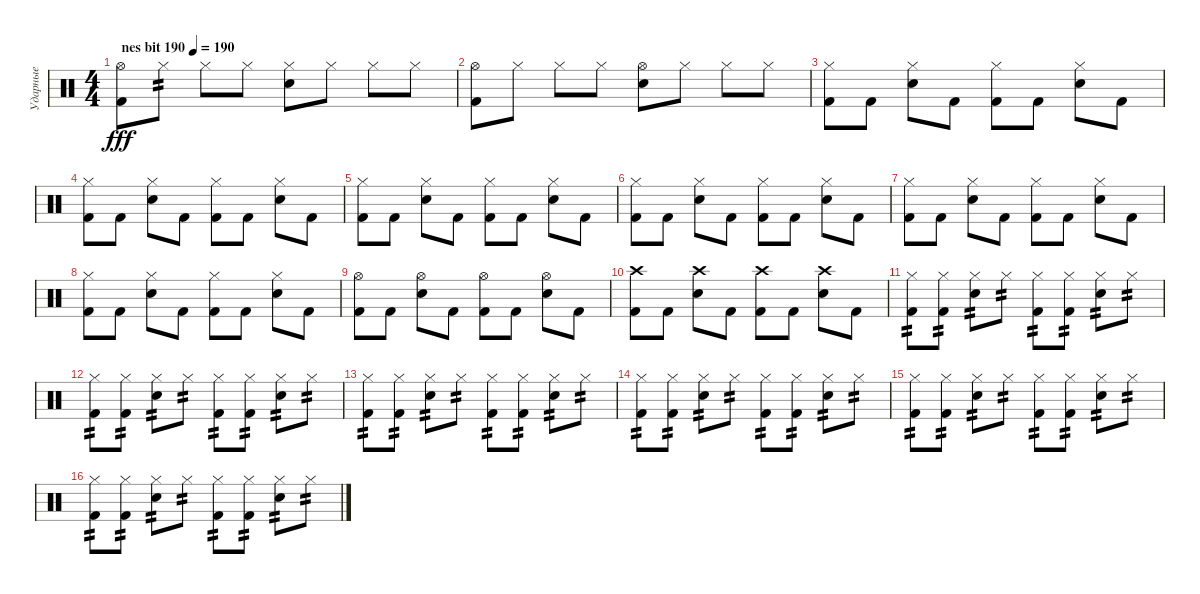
\track ("Ударные" "Ударные") {instrument percussion}
\staff {score}
\articulation defaults
\ts (4 4)
\tempo (190 "nes bit 190")
\clef neutral
\ks c
("Hi-Hat (open)" "Kick (hit) 2").8{dy fff} "Hi-Hat (closed)".8{tp 2} "Hi-Hat (closed)".8 "Hi-Hat (closed)".8 ("Hi-Hat (closed)" "Snare (hit) 2").8 "Hi-Hat (closed)".8 "Hi-Hat (closed)".8 "Hi-Hat (closed)".8 |
("Hi-Hat (open)" "Kick (hit) 2").8 "Hi-Hat (closed)".8 "Hi-Hat (closed)".8 "Hi-Hat (closed)".8 ("Hi-Hat (open)" "Snare (hit) 2").8 "Hi-Hat (closed)".8 "Hi-Hat (closed)".8 "Hi-Hat (closed)".8 |
("Hi-Hat (closed)" "Kick (hit) 2").8 "Kick (hit) 2".8 ("Hi-Hat (closed)" "Snare (hit) 2").8 "Kick (hit) 2".8 ("Hi-Hat (closed)" "Kick (hit) 2").8 "Kick (hit) 2".8 ("Hi-Hat (closed)" "Snare (hit) 2").8 "Kick (hit) 2".8 |
("Hi-Hat (closed)" "Kick (hit) 2").8 "Kick (hit) 2".8 ("Hi-Hat (closed)" "Snare (hit) 2").8 "Kick (hit) 2".8 ("Hi-Hat (closed)" "Kick (hit) 2").8 "Kick (hit) 2".8 ("Hi-Hat (closed)" "Snare (hit) 2").8 "Kick (hit) 2".8 |
("Hi-Hat (closed)" "Kick (hit) 2").8 "Kick (hit) 2".8 ("Hi-Hat (closed)" "Snare (hit) 2").8 "Kick (hit) 2".8 ("Hi-Hat (closed)" "Kick (hit) 2").8 "Kick (hit) 2".8 ("Hi-Hat (closed)" "Snare (hit) 2").8 "Kick (hit) 2".8 |
("Hi-Hat (closed)" "Kick (hit) 2").8 "Kick (hit) 2".8 ("Hi-Hat (closed)" "Snare (hit) 2").8 "Kick (hit) 2".8 ("Hi-Hat (closed)" "Kick (hit) 2").8 "Kick (hit) 2".8 ("Hi-Hat (closed)" "Snare (hit) 2").8 "Kick (hit) 2".8 |
("Hi-Hat (closed)" "Kick (hit) 2").8 "Kick (hit) 2".8 ("Hi-Hat (closed)" "Snare (hit) 2").8 "Kick (hit) 2".8 ("Hi-Hat (closed)" "Kick (hit) 2").8 "Kick (hit) 2".8 ("Hi-Hat (closed)" "Snare (hit) 2").8 "Kick (hit) 2".8 |
("Hi-Hat (closed)" "Kick (hit) 2").8 "Kick (hit) 2".8 ("Hi-Hat (closed)" "Snare (hit) 2").8 "Kick (hit) 2".8 ("Hi-Hat (closed)" "Kick (hit) 2").8 "Kick (hit) 2".8 ("Hi-Hat (closed)" "Snare (hit) 2").8 "Kick (hit) 2".8 |
("Hi-Hat (open)" "Kick (hit) 2").8 "Kick (hit) 2".8 ("Hi-Hat (open)" "Snare (hit) 2").8 "Kick (hit) 2".8 ("Hi-Hat (open)" "Kick (hit) 2").8 "Kick (hit) 2".8 ("Hi-Hat (open)" "Snare (hit) 2").8 "Kick (hit) 2".8 |
("Crash high (hit)" "Kick (hit) 2").8 "Kick (hit) 2".8 ("Crash high (hit)" "Snare (hit) 2").8 "Kick (hit) 2".8 ("Crash high (hit)" "Kick (hit) 2").8 "Kick (hit) 2".8 ("Crash high (hit)" "Snare (hit) 2").8 "Kick (hit) 2".8 |
("Hi-Hat (closed)" "Kick (hit) 2").8{tp 2} ("Hi-Hat (closed)" "Kick (hit) 2").8{tp 2} ("Hi-Hat (closed)" "Snare (hit) 2").8{tp 2} "Hi-Hat (closed)".8{tp 2} ("Hi-Hat (closed)" "Kick (hit) 2").8{tp 2} ("Hi-Hat (closed)" "Kick (hit) 2").8{tp 2} ("Hi-Hat (closed)" "Snare (hit) 2").8{tp 2} "Hi-Hat (closed)".8{tp 2} |
("Hi-Hat (closed)" "Kick (hit) 2").8{tp 2} ("Hi-Hat (closed)" "Kick (hit) 2").8{tp 2} ("Hi-Hat (closed)" "Snare (hit) 2").8{tp 2} "Hi-Hat (closed)".8{tp 2} ("Hi-Hat (closed)" "Kick (hit) 2").8{tp 2} ("Hi-Hat (closed)" "Kick (hit) 2").8{tp 2} ("Hi-Hat (closed)" "Snare (hit) 2").8{tp 2} "Hi-Hat (closed)".8{tp 2} |
("Hi-Hat (closed)" "Kick (hit) 2").8{tp 2} ("Hi-Hat (closed)" "Kick (hit) 2").8{tp 2} ("Hi-Hat (closed)" "Snare (hit) 2").8{tp 2} "Hi-Hat (closed)".8{tp 2} ("Hi-Hat (closed)" "Kick (hit) 2").8{tp 2} ("Hi-Hat (closed)" "Kick (hit) 2").8{tp 2} ("Hi-Hat (closed)" "Snare (hit) 2").8{tp 2} "Hi-Hat (closed)".8{tp 2} |
("Hi-Hat (closed)" "Kick (hit) 2").8{tp 2} ("Hi-Hat (closed)" "Kick (hit) 2").8{tp 2} ("Hi-Hat (closed)" "Snare (hit) 2").8{tp 2} "Hi-Hat (closed)".8{tp 2} ("Hi-Hat (closed)" "Kick (hit) 2").8{tp 2} ("Hi-Hat (closed)" "Kick (hit) 2").8{tp 2} ("Hi-Hat (closed)" "Snare (hit) 2").8{tp 2} "Hi-Hat (closed)".8{tp 2} |
("Hi-Hat (closed)" "Kick (hit) 2").8{tp 2} ("Hi-Hat (closed)" "Kick (hit) 2").8{tp 2} ("Hi-Hat (closed)" "Snare (hit) 2").8{tp 2} "Hi-Hat (closed)".8{tp 2} ("Hi-Hat (closed)" "Kick (hit) 2").8{tp 2} ("Hi-Hat (closed)" "Kick (hit) 2").8{tp 2} ("Hi-Hat (closed)" "Snare (hit) 2").8{tp 2} "Hi-Hat (closed)".8{tp 2} |
("Hi-Hat (closed)" "Kick (hit) 2").8{tp 2} ("Hi-Hat (closed)" "Kick (hit) 2").8{tp 2} ("Hi-Hat (closed)" "Snare (hit) 2").8{tp 2} "Hi-Hat (closed)".8{tp 2} ("Hi-Hat (closed)" "Kick (hit) 2").8{tp 2} ("Hi-Hat (closed)" "Kick (hit) 2").8{tp 2} ("Hi-Hat (closed)" "Snare (hit) 2").8{tp 2} "Hi-Hat (closed)".8{tp 2}
